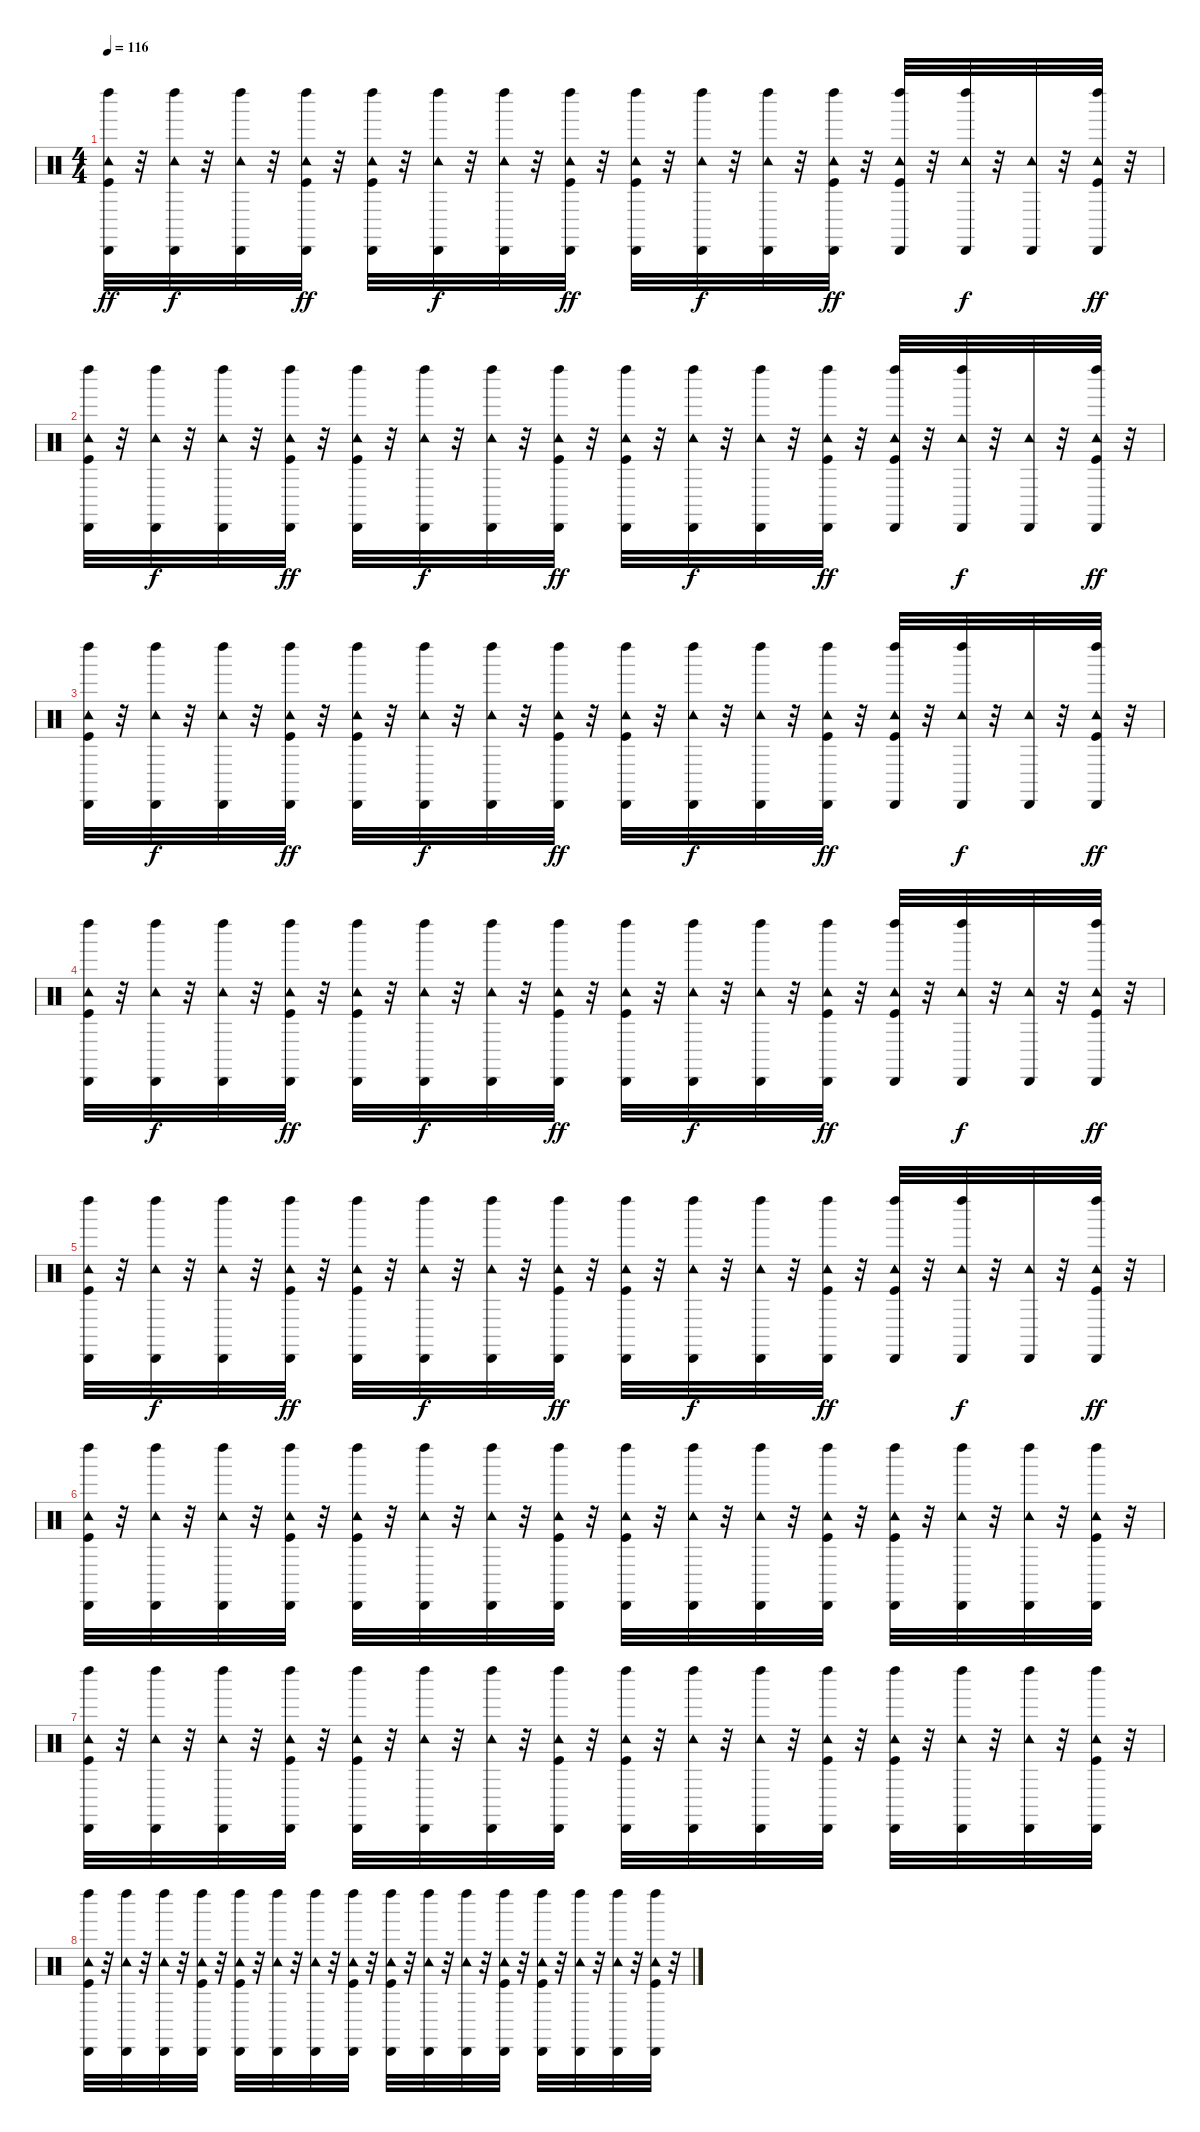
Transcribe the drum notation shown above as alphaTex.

\track "" {instrument percussion}
\staff {score}
\articulation defaults
\ts (4 4)
\tempo 116
\clef neutral
\ks c
("Kick (hit)" "Tambourine (hit)" "Cabasa (hit)" "Left Maraca (hit)").32{dy ff} r.32 ("Tambourine (hit)" "Cabasa (hit)" "Left Maraca (hit)").32{dy f} r.32 ("Tambourine (hit)" "Cabasa (hit)" "Left Maraca (hit)").32 r.32 ("Kick (hit)" "Tambourine (hit)" "Cabasa (hit)" "Left Maraca (hit)").32{dy ff} r.32 ("Kick (hit)" "Tambourine (hit)" "Cabasa (hit)" "Left Maraca (hit)").32 r.32 ("Tambourine (hit)" "Cabasa (hit)" "Left Maraca (hit)").32{dy f} r.32 ("Tambourine (hit)" "Cabasa (hit)" "Left Maraca (hit)").32 r.32 ("Kick (hit)" "Tambourine (hit)" "Cabasa (hit)" "Left Maraca (hit)").32{dy ff} r.32 ("Kick (hit)" "Tambourine (hit)" "Cabasa (hit)" "Left Maraca (hit)").32 r.32 ("Tambourine (hit)" "Cabasa (hit)" "Left Maraca (hit)").32{dy f} r.32 ("Tambourine (hit)" "Cabasa (hit)" "Left Maraca (hit)").32 r.32 ("Kick (hit)" "Tambourine (hit)" "Cabasa (hit)" "Left Maraca (hit)").32{dy ff} r.32 ("Kick (hit)" "Tambourine (hit)" "Cabasa (hit)" "Left Maraca (hit)").32 r.32 ("Tambourine (hit)" "Cabasa (hit)" "Left Maraca (hit)").32{dy f} r.32 ("Tambourine (hit)" "Cabasa (hit)").32 r.32 ("Kick (hit)" "Tambourine (hit)" "Cabasa (hit)" "Left Maraca (hit)").32{dy ff} r.32 |
("Kick (hit)" "Tambourine (hit)" "Cabasa (hit)" "Left Maraca (hit)").32 r.32 ("Tambourine (hit)" "Cabasa (hit)" "Left Maraca (hit)").32{dy f} r.32 ("Tambourine (hit)" "Cabasa (hit)" "Left Maraca (hit)").32 r.32 ("Kick (hit)" "Tambourine (hit)" "Cabasa (hit)" "Left Maraca (hit)").32{dy ff} r.32 ("Kick (hit)" "Tambourine (hit)" "Cabasa (hit)" "Left Maraca (hit)").32 r.32 ("Tambourine (hit)" "Cabasa (hit)" "Left Maraca (hit)").32{dy f} r.32 ("Tambourine (hit)" "Cabasa (hit)" "Left Maraca (hit)").32 r.32 ("Kick (hit)" "Tambourine (hit)" "Cabasa (hit)" "Left Maraca (hit)").32{dy ff} r.32 ("Kick (hit)" "Tambourine (hit)" "Cabasa (hit)" "Left Maraca (hit)").32 r.32 ("Tambourine (hit)" "Cabasa (hit)" "Left Maraca (hit)").32{dy f} r.32 ("Tambourine (hit)" "Cabasa (hit)" "Left Maraca (hit)").32 r.32 ("Kick (hit)" "Tambourine (hit)" "Cabasa (hit)" "Left Maraca (hit)").32{dy ff} r.32 ("Kick (hit)" "Tambourine (hit)" "Cabasa (hit)" "Left Maraca (hit)").32 r.32 ("Tambourine (hit)" "Cabasa (hit)" "Left Maraca (hit)").32{dy f} r.32 ("Tambourine (hit)" "Cabasa (hit)").32 r.32 ("Kick (hit)" "Tambourine (hit)" "Cabasa (hit)" "Left Maraca (hit)").32{dy ff} r.32 |
("Kick (hit)" "Tambourine (hit)" "Cabasa (hit)" "Left Maraca (hit)").32 r.32 ("Tambourine (hit)" "Cabasa (hit)" "Left Maraca (hit)").32{dy f} r.32 ("Tambourine (hit)" "Cabasa (hit)" "Left Maraca (hit)").32 r.32 ("Kick (hit)" "Tambourine (hit)" "Cabasa (hit)" "Left Maraca (hit)").32{dy ff} r.32 ("Kick (hit)" "Tambourine (hit)" "Cabasa (hit)" "Left Maraca (hit)").32 r.32 ("Tambourine (hit)" "Cabasa (hit)" "Left Maraca (hit)").32{dy f} r.32 ("Tambourine (hit)" "Cabasa (hit)" "Left Maraca (hit)").32 r.32 ("Kick (hit)" "Tambourine (hit)" "Cabasa (hit)" "Left Maraca (hit)").32{dy ff} r.32 ("Kick (hit)" "Tambourine (hit)" "Cabasa (hit)" "Left Maraca (hit)").32 r.32 ("Tambourine (hit)" "Cabasa (hit)" "Left Maraca (hit)").32{dy f} r.32 ("Tambourine (hit)" "Cabasa (hit)" "Left Maraca (hit)").32 r.32 ("Kick (hit)" "Tambourine (hit)" "Cabasa (hit)" "Left Maraca (hit)").32{dy ff} r.32 ("Kick (hit)" "Tambourine (hit)" "Cabasa (hit)" "Left Maraca (hit)").32 r.32 ("Tambourine (hit)" "Cabasa (hit)" "Left Maraca (hit)").32{dy f} r.32 ("Tambourine (hit)" "Cabasa (hit)").32 r.32 ("Kick (hit)" "Tambourine (hit)" "Cabasa (hit)" "Left Maraca (hit)").32{dy ff} r.32 |
("Kick (hit)" "Tambourine (hit)" "Cabasa (hit)" "Left Maraca (hit)").32 r.32 ("Tambourine (hit)" "Cabasa (hit)" "Left Maraca (hit)").32{dy f} r.32 ("Tambourine (hit)" "Cabasa (hit)" "Left Maraca (hit)").32 r.32 ("Kick (hit)" "Tambourine (hit)" "Cabasa (hit)" "Left Maraca (hit)").32{dy ff} r.32 ("Kick (hit)" "Tambourine (hit)" "Cabasa (hit)" "Left Maraca (hit)").32 r.32 ("Tambourine (hit)" "Cabasa (hit)" "Left Maraca (hit)").32{dy f} r.32 ("Tambourine (hit)" "Cabasa (hit)" "Left Maraca (hit)").32 r.32 ("Kick (hit)" "Tambourine (hit)" "Cabasa (hit)" "Left Maraca (hit)").32{dy ff} r.32 ("Kick (hit)" "Tambourine (hit)" "Cabasa (hit)" "Left Maraca (hit)").32 r.32 ("Tambourine (hit)" "Cabasa (hit)" "Left Maraca (hit)").32{dy f} r.32 ("Tambourine (hit)" "Cabasa (hit)" "Left Maraca (hit)").32 r.32 ("Kick (hit)" "Tambourine (hit)" "Cabasa (hit)" "Left Maraca (hit)").32{dy ff} r.32 ("Kick (hit)" "Tambourine (hit)" "Cabasa (hit)" "Left Maraca (hit)").32 r.32 ("Tambourine (hit)" "Cabasa (hit)" "Left Maraca (hit)").32{dy f} r.32 ("Tambourine (hit)" "Cabasa (hit)").32 r.32 ("Kick (hit)" "Tambourine (hit)" "Cabasa (hit)" "Left Maraca (hit)").32{dy ff} r.32 |
("Kick (hit)" "Tambourine (hit)" "Cabasa (hit)" "Left Maraca (hit)").32 r.32 ("Tambourine (hit)" "Cabasa (hit)" "Left Maraca (hit)").32{dy f} r.32 ("Tambourine (hit)" "Cabasa (hit)" "Left Maraca (hit)").32 r.32 ("Kick (hit)" "Tambourine (hit)" "Cabasa (hit)" "Left Maraca (hit)").32{dy ff} r.32 ("Kick (hit)" "Tambourine (hit)" "Cabasa (hit)" "Left Maraca (hit)").32 r.32 ("Tambourine (hit)" "Cabasa (hit)" "Left Maraca (hit)").32{dy f} r.32 ("Tambourine (hit)" "Cabasa (hit)" "Left Maraca (hit)").32 r.32 ("Kick (hit)" "Tambourine (hit)" "Cabasa (hit)" "Left Maraca (hit)").32{dy ff} r.32 ("Kick (hit)" "Tambourine (hit)" "Cabasa (hit)" "Left Maraca (hit)").32 r.32 ("Tambourine (hit)" "Cabasa (hit)" "Left Maraca (hit)").32{dy f} r.32 ("Tambourine (hit)" "Cabasa (hit)" "Left Maraca (hit)").32 r.32 ("Kick (hit)" "Tambourine (hit)" "Cabasa (hit)" "Left Maraca (hit)").32{dy ff} r.32 ("Kick (hit)" "Tambourine (hit)" "Cabasa (hit)" "Left Maraca (hit)").32 r.32 ("Tambourine (hit)" "Cabasa (hit)" "Left Maraca (hit)").32{dy f} r.32 ("Tambourine (hit)" "Cabasa (hit)").32 r.32 ("Kick (hit)" "Tambourine (hit)" "Cabasa (hit)" "Left Maraca (hit)").32{dy ff} r.32 |
("Kick (hit)" "Tambourine (hit)" "Cabasa (hit)" "Left Maraca (hit)").32 r.32 ("Tambourine (hit)" "Cabasa (hit)" "Left Maraca (hit)").32 r.32 ("Tambourine (hit)" "Cabasa (hit)" "Left Maraca (hit)").32 r.32 ("Kick (hit)" "Tambourine (hit)" "Cabasa (hit)" "Left Maraca (hit)").32 r.32 ("Kick (hit)" "Tambourine (hit)" "Cabasa (hit)" "Left Maraca (hit)").32 r.32 ("Tambourine (hit)" "Cabasa (hit)" "Left Maraca (hit)").32 r.32 ("Tambourine (hit)" "Cabasa (hit)" "Left Maraca (hit)").32 r.32 ("Kick (hit)" "Tambourine (hit)" "Cabasa (hit)" "Left Maraca (hit)").32 r.32 ("Kick (hit)" "Tambourine (hit)" "Cabasa (hit)" "Left Maraca (hit)").32 r.32 ("Tambourine (hit)" "Cabasa (hit)" "Left Maraca (hit)").32 r.32 ("Tambourine (hit)" "Cabasa (hit)" "Left Maraca (hit)").32 r.32 ("Kick (hit)" "Tambourine (hit)" "Cabasa (hit)" "Left Maraca (hit)").32 r.32 ("Kick (hit)" "Tambourine (hit)" "Cabasa (hit)" "Left Maraca (hit)").32 r.32 ("Tambourine (hit)" "Cabasa (hit)" "Left Maraca (hit)").32 r.32 ("Tambourine (hit)" "Cabasa (hit)" "Left Maraca (hit)").32 r.32 ("Kick (hit)" "Tambourine (hit)" "Cabasa (hit)" "Left Maraca (hit)").32 r.32 |
("Kick (hit)" "Tambourine (hit)" "Cabasa (hit)" "Left Maraca (hit)").32 r.32 ("Tambourine (hit)" "Cabasa (hit)" "Left Maraca (hit)").32 r.32 ("Tambourine (hit)" "Cabasa (hit)" "Left Maraca (hit)").32 r.32 ("Kick (hit)" "Tambourine (hit)" "Cabasa (hit)" "Left Maraca (hit)").32 r.32 ("Kick (hit)" "Tambourine (hit)" "Cabasa (hit)" "Left Maraca (hit)").32 r.32 ("Tambourine (hit)" "Cabasa (hit)" "Left Maraca (hit)").32 r.32 ("Tambourine (hit)" "Cabasa (hit)" "Left Maraca (hit)").32 r.32 ("Kick (hit)" "Tambourine (hit)" "Cabasa (hit)" "Left Maraca (hit)").32 r.32 ("Kick (hit)" "Tambourine (hit)" "Cabasa (hit)" "Left Maraca (hit)").32 r.32 ("Tambourine (hit)" "Cabasa (hit)" "Left Maraca (hit)").32 r.32 ("Tambourine (hit)" "Cabasa (hit)" "Left Maraca (hit)").32 r.32 ("Kick (hit)" "Tambourine (hit)" "Cabasa (hit)" "Left Maraca (hit)").32 r.32 ("Kick (hit)" "Tambourine (hit)" "Cabasa (hit)" "Left Maraca (hit)").32 r.32 ("Tambourine (hit)" "Cabasa (hit)" "Left Maraca (hit)").32 r.32 ("Tambourine (hit)" "Cabasa (hit)" "Left Maraca (hit)").32 r.32 ("Kick (hit)" "Tambourine (hit)" "Cabasa (hit)" "Left Maraca (hit)").32 r.32 |
("Kick (hit)" "Tambourine (hit)" "Cabasa (hit)" "Left Maraca (hit)").32 r.32 ("Tambourine (hit)" "Cabasa (hit)" "Left Maraca (hit)").32 r.32 ("Tambourine (hit)" "Cabasa (hit)" "Left Maraca (hit)").32 r.32 ("Kick (hit)" "Tambourine (hit)" "Cabasa (hit)" "Left Maraca (hit)").32 r.32 ("Kick (hit)" "Tambourine (hit)" "Cabasa (hit)" "Left Maraca (hit)").32 r.32 ("Tambourine (hit)" "Cabasa (hit)" "Left Maraca (hit)").32 r.32 ("Tambourine (hit)" "Cabasa (hit)" "Left Maraca (hit)").32 r.32 ("Kick (hit)" "Tambourine (hit)" "Cabasa (hit)" "Left Maraca (hit)").32 r.32 ("Kick (hit)" "Tambourine (hit)" "Cabasa (hit)" "Left Maraca (hit)").32 r.32 ("Tambourine (hit)" "Cabasa (hit)" "Left Maraca (hit)").32 r.32 ("Tambourine (hit)" "Cabasa (hit)" "Left Maraca (hit)").32 r.32 ("Kick (hit)" "Tambourine (hit)" "Cabasa (hit)" "Left Maraca (hit)").32 r.32 ("Kick (hit)" "Tambourine (hit)" "Cabasa (hit)" "Left Maraca (hit)").32 r.32 ("Tambourine (hit)" "Cabasa (hit)" "Left Maraca (hit)").32 r.32 ("Tambourine (hit)" "Cabasa (hit)" "Left Maraca (hit)").32 r.32 ("Kick (hit)" "Tambourine (hit)" "Cabasa (hit)" "Left Maraca (hit)").32 r.32
